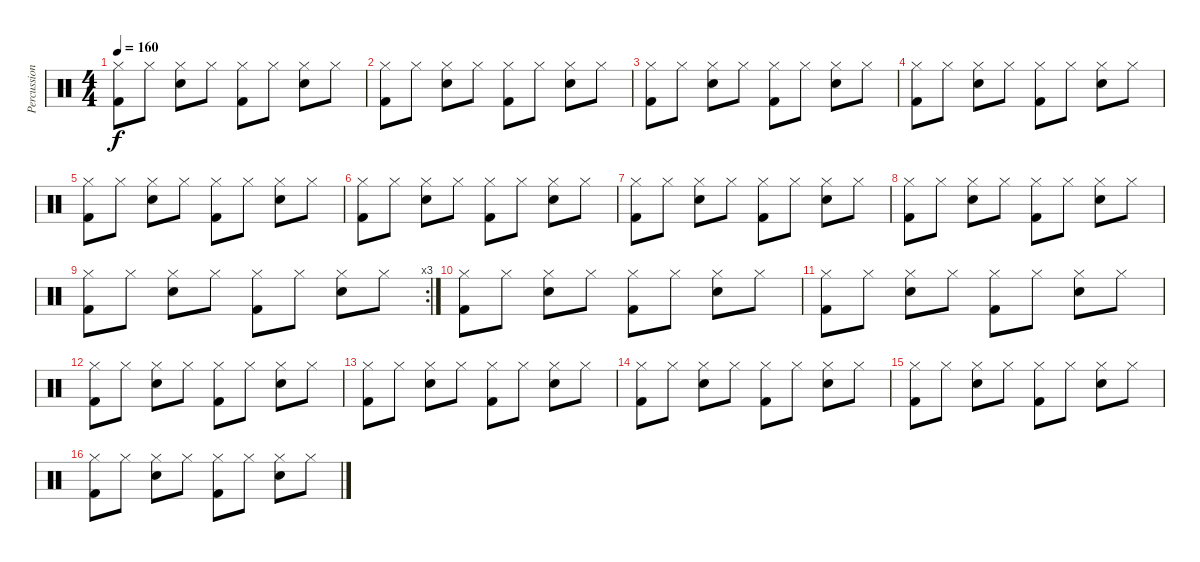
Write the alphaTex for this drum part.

\track ("Percussion" "Percussion") {instrument percussion}
\staff {score}
\articulation defaults
\ts (4 4)
\tempo 160
\clef neutral
\ks c
("Hi-Hat (closed)" "Kick (hit) 2").8{dy f} "Hi-Hat (closed)".8 ("Hi-Hat (closed)" "Electric Snare (hit)").8 "Hi-Hat (closed)".8 ("Hi-Hat (closed)" "Kick (hit) 2").8 "Hi-Hat (closed)".8 ("Hi-Hat (closed)" "Electric Snare (hit)").8 "Hi-Hat (closed)".8 |
("Hi-Hat (closed)" "Kick (hit) 2").8 "Hi-Hat (closed)".8 ("Hi-Hat (closed)" "Electric Snare (hit)").8 "Hi-Hat (closed)".8 ("Hi-Hat (closed)" "Kick (hit) 2").8 "Hi-Hat (closed)".8 ("Hi-Hat (closed)" "Electric Snare (hit)").8 "Hi-Hat (closed)".8 |
("Hi-Hat (closed)" "Kick (hit) 2").8 "Hi-Hat (closed)".8 ("Hi-Hat (closed)" "Electric Snare (hit)").8 "Hi-Hat (closed)".8 ("Hi-Hat (closed)" "Kick (hit) 2").8 "Hi-Hat (closed)".8 ("Hi-Hat (closed)" "Electric Snare (hit)").8 "Hi-Hat (closed)".8 |
("Hi-Hat (closed)" "Kick (hit) 2").8 "Hi-Hat (closed)".8 ("Hi-Hat (closed)" "Electric Snare (hit)").8 "Hi-Hat (closed)".8 ("Hi-Hat (closed)" "Kick (hit) 2").8 "Hi-Hat (closed)".8 ("Hi-Hat (closed)" "Electric Snare (hit)").8 "Hi-Hat (closed)".8 |
("Hi-Hat (closed)" "Kick (hit) 2").8 "Hi-Hat (closed)".8 ("Hi-Hat (closed)" "Electric Snare (hit)").8 "Hi-Hat (closed)".8 ("Hi-Hat (closed)" "Kick (hit) 2").8 "Hi-Hat (closed)".8 ("Hi-Hat (closed)" "Electric Snare (hit)").8 "Hi-Hat (closed)".8 |
("Hi-Hat (closed)" "Kick (hit) 2").8 "Hi-Hat (closed)".8 ("Hi-Hat (closed)" "Electric Snare (hit)").8 "Hi-Hat (closed)".8 ("Hi-Hat (closed)" "Kick (hit) 2").8 "Hi-Hat (closed)".8 ("Hi-Hat (closed)" "Electric Snare (hit)").8 "Hi-Hat (closed)".8 |
("Hi-Hat (closed)" "Kick (hit) 2").8 "Hi-Hat (closed)".8 ("Hi-Hat (closed)" "Electric Snare (hit)").8 "Hi-Hat (closed)".8 ("Hi-Hat (closed)" "Kick (hit) 2").8 "Hi-Hat (closed)".8 ("Hi-Hat (closed)" "Electric Snare (hit)").8 "Hi-Hat (closed)".8 |
("Hi-Hat (closed)" "Kick (hit) 2").8 "Hi-Hat (closed)".8 ("Hi-Hat (closed)" "Electric Snare (hit)").8 "Hi-Hat (closed)".8 ("Hi-Hat (closed)" "Kick (hit) 2").8 "Hi-Hat (closed)".8 ("Hi-Hat (closed)" "Electric Snare (hit)").8 "Hi-Hat (closed)".8 |
\rc 3
("Hi-Hat (closed)" "Kick (hit) 2").8 "Hi-Hat (closed)".8 ("Hi-Hat (closed)" "Electric Snare (hit)").8 "Hi-Hat (closed)".8 ("Hi-Hat (closed)" "Kick (hit) 2").8 "Hi-Hat (closed)".8 ("Hi-Hat (closed)" "Electric Snare (hit)").8 "Hi-Hat (closed)".8 |
("Hi-Hat (closed)" "Kick (hit) 2").8 "Hi-Hat (closed)".8 ("Hi-Hat (closed)" "Electric Snare (hit)").8 "Hi-Hat (closed)".8 ("Hi-Hat (closed)" "Kick (hit) 2").8 "Hi-Hat (closed)".8 ("Hi-Hat (closed)" "Electric Snare (hit)").8 "Hi-Hat (closed)".8 |
("Hi-Hat (closed)" "Kick (hit) 2").8 "Hi-Hat (closed)".8 ("Hi-Hat (closed)" "Electric Snare (hit)").8 "Hi-Hat (closed)".8 ("Hi-Hat (closed)" "Kick (hit) 2").8 "Hi-Hat (closed)".8 ("Hi-Hat (closed)" "Electric Snare (hit)").8 "Hi-Hat (closed)".8 |
("Hi-Hat (closed)" "Kick (hit) 2").8 "Hi-Hat (closed)".8 ("Hi-Hat (closed)" "Electric Snare (hit)").8 "Hi-Hat (closed)".8 ("Hi-Hat (closed)" "Kick (hit) 2").8 "Hi-Hat (closed)".8 ("Hi-Hat (closed)" "Electric Snare (hit)").8 "Hi-Hat (closed)".8 |
("Hi-Hat (closed)" "Kick (hit) 2").8 "Hi-Hat (closed)".8 ("Hi-Hat (closed)" "Electric Snare (hit)").8 "Hi-Hat (closed)".8 ("Hi-Hat (closed)" "Kick (hit) 2").8 "Hi-Hat (closed)".8 ("Hi-Hat (closed)" "Electric Snare (hit)").8 "Hi-Hat (closed)".8 |
("Hi-Hat (closed)" "Kick (hit) 2").8 "Hi-Hat (closed)".8 ("Hi-Hat (closed)" "Electric Snare (hit)").8 "Hi-Hat (closed)".8 ("Hi-Hat (closed)" "Kick (hit) 2").8 "Hi-Hat (closed)".8 ("Hi-Hat (closed)" "Electric Snare (hit)").8 "Hi-Hat (closed)".8 |
("Hi-Hat (closed)" "Kick (hit) 2").8 "Hi-Hat (closed)".8 ("Hi-Hat (closed)" "Electric Snare (hit)").8 "Hi-Hat (closed)".8 ("Hi-Hat (closed)" "Kick (hit) 2").8 "Hi-Hat (closed)".8 ("Hi-Hat (closed)" "Electric Snare (hit)").8 "Hi-Hat (closed)".8 |
("Hi-Hat (closed)" "Kick (hit) 2").8 "Hi-Hat (closed)".8 ("Hi-Hat (closed)" "Electric Snare (hit)").8 "Hi-Hat (closed)".8 ("Hi-Hat (closed)" "Kick (hit) 2").8 "Hi-Hat (closed)".8 ("Hi-Hat (closed)" "Electric Snare (hit)").8 "Hi-Hat (closed)".8
